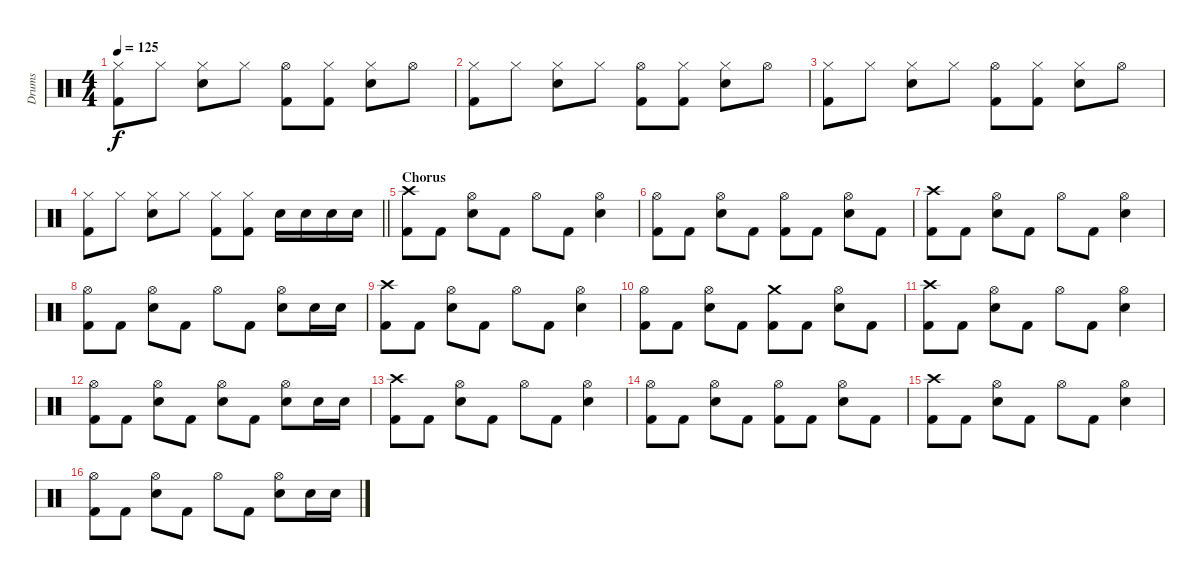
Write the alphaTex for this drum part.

\track ("Drums" "Drums") {instrument percussion}
\staff {score}
\articulation defaults
\ts (4 4)
\tempo 125
\clef neutral
\ks c
("Hi-Hat (closed)" "Kick (hit) 2").8{dy f} "Hi-Hat (closed)".8 ("Hi-Hat (closed)" "Electric Snare (hit)").8 "Hi-Hat (closed)".8 ("Hi-Hat (open)" "Kick (hit) 2").8 ("Hi-Hat (closed)" "Kick (hit) 2").8 ("Hi-Hat (closed)" "Electric Snare (hit)").8 "Hi-Hat (open)".8 |
("Hi-Hat (closed)" "Kick (hit) 2").8 "Hi-Hat (closed)".8 ("Hi-Hat (closed)" "Electric Snare (hit)").8 "Hi-Hat (closed)".8 ("Hi-Hat (open)" "Kick (hit) 2").8 ("Hi-Hat (closed)" "Kick (hit) 2").8 ("Hi-Hat (closed)" "Electric Snare (hit)").8 "Hi-Hat (open)".8 |
("Hi-Hat (closed)" "Kick (hit) 2").8 "Hi-Hat (closed)".8 ("Hi-Hat (closed)" "Electric Snare (hit)").8 "Hi-Hat (closed)".8 ("Hi-Hat (open)" "Kick (hit) 2").8 ("Hi-Hat (closed)" "Kick (hit) 2").8 ("Hi-Hat (closed)" "Electric Snare (hit)").8 "Hi-Hat (open)".8 |
\barLineRight lightlight
("Hi-Hat (closed)" "Kick (hit) 2").8 "Hi-Hat (closed)".8 ("Hi-Hat (closed)" "Electric Snare (hit)").8 "Hi-Hat (closed)".8 ("Hi-Hat (closed)" "Kick (hit) 2").8 ("Hi-Hat (closed)" "Kick (hit) 2").8 "Electric Snare (hit)".16 "Electric Snare (hit)".16 "Electric Snare (hit)".16 "Electric Snare (hit)".16 |
\section ("" "Chorus")
("Crash high (hit)" "Kick (hit) 2").8 "Kick (hit) 2".8 ("Hi-Hat (open)" "Electric Snare (hit)").8 "Kick (hit) 2".8 "Hi-Hat (open)".8 "Kick (hit) 2".8 ("Hi-Hat (open)" "Electric Snare (hit)").4 |
("Hi-Hat (open)" "Kick (hit) 2").8 "Kick (hit) 2".8 ("Hi-Hat (open)" "Electric Snare (hit)").8 "Kick (hit) 2".8 ("Hi-Hat (open)" "Kick (hit) 2").8 "Kick (hit) 2".8 ("Hi-Hat (open)" "Electric Snare (hit)").8 "Kick (hit) 2".8 |
("Crash high (hit)" "Kick (hit) 2").8 "Kick (hit) 2".8 ("Hi-Hat (open)" "Electric Snare (hit)").8 "Kick (hit) 2".8 "Hi-Hat (open)".8 "Kick (hit) 2".8 ("Hi-Hat (open)" "Electric Snare (hit)").4 |
("Hi-Hat (open)" "Kick (hit) 2").8 "Kick (hit) 2".8 ("Hi-Hat (open)" "Electric Snare (hit)").8 "Kick (hit) 2".8 "Hi-Hat (open)".8 "Kick (hit) 2".8 ("Hi-Hat (open)" "Electric Snare (hit)").8 "Electric Snare (hit)".16 "Electric Snare (hit)".16 |
("Crash high (hit)" "Kick (hit) 2").8 "Kick (hit) 2".8 ("Hi-Hat (open)" "Electric Snare (hit)").8 "Kick (hit) 2".8 "Hi-Hat (open)".8 "Kick (hit) 2".8 ("Hi-Hat (open)" "Electric Snare (hit)").4 |
("Hi-Hat (open)" "Kick (hit) 2").8 "Kick (hit) 2".8 ("Hi-Hat (open)" "Electric Snare (hit)").8 "Kick (hit) 2".8 ("Crash medium (hit)" "Kick (hit) 2").8 "Kick (hit) 2".8 ("Hi-Hat (open)" "Electric Snare (hit)").8 "Kick (hit) 2".8 |
("Crash high (hit)" "Kick (hit) 2").8 "Kick (hit) 2".8 ("Hi-Hat (open)" "Electric Snare (hit)").8 "Kick (hit) 2".8 "Hi-Hat (open)".8 "Kick (hit) 2".8 ("Hi-Hat (open)" "Electric Snare (hit)").4 |
("Hi-Hat (open)" "Kick (hit) 2").8 "Kick (hit) 2".8 ("Hi-Hat (open)" "Electric Snare (hit)").8 "Kick (hit) 2".8 ("Hi-Hat (open)" "Electric Snare (hit)").8 "Kick (hit) 2".8 ("Hi-Hat (open)" "Electric Snare (hit)").8 "Electric Snare (hit)".16 "Electric Snare (hit)".16 |
("Crash high (hit)" "Kick (hit) 2").8 "Kick (hit) 2".8 ("Hi-Hat (open)" "Electric Snare (hit)").8 "Kick (hit) 2".8 "Hi-Hat (open)".8 "Kick (hit) 2".8 ("Hi-Hat (open)" "Electric Snare (hit)").4 |
("Hi-Hat (open)" "Kick (hit) 2").8 "Kick (hit) 2".8 ("Hi-Hat (open)" "Electric Snare (hit)").8 "Kick (hit) 2".8 ("Hi-Hat (open)" "Kick (hit) 2").8 "Kick (hit) 2".8 ("Hi-Hat (open)" "Electric Snare (hit)").8 "Kick (hit) 2".8 |
("Crash high (hit)" "Kick (hit) 2").8 "Kick (hit) 2".8 ("Hi-Hat (open)" "Electric Snare (hit)").8 "Kick (hit) 2".8 "Hi-Hat (open)".8 "Kick (hit) 2".8 ("Hi-Hat (open)" "Electric Snare (hit)").4 |
("Hi-Hat (open)" "Kick (hit) 2").8 "Kick (hit) 2".8 ("Hi-Hat (open)" "Electric Snare (hit)").8 "Kick (hit) 2".8 "Hi-Hat (open)".8 "Kick (hit) 2".8 ("Hi-Hat (open)" "Electric Snare (hit)").8 "Electric Snare (hit)".16 "Electric Snare (hit)".16
